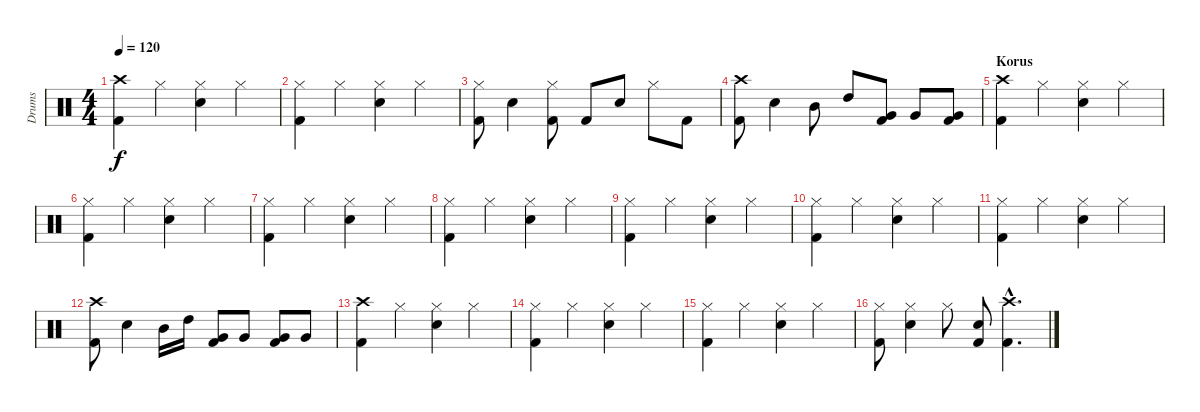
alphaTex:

\track ("Drums" "Drums") {instrument percussion}
\staff {score}
\articulation defaults
\ts (4 4)
\tempo 120
\clef neutral
\ks c
("Crash high (hit)" "Kick (hit) 2").4{dy f} "Hi-Hat (closed)".4 ("Hi-Hat (closed)" "Electric Snare (hit)").4 "Hi-Hat (closed)".4 |
("Hi-Hat (closed)" "Kick (hit) 2").4 "Hi-Hat (closed)".4 ("Hi-Hat (closed)" "Electric Snare (hit)").4 "Hi-Hat (closed)".4 |
("Hi-Hat (closed)" "Kick (hit) 2").8 "Electric Snare (hit)".4 ("Hi-Hat (closed)" "Kick (hit) 2").8 "Kick (hit) 2".8 "Electric Snare (hit)".8 "Hi-Hat (closed)".8 "Kick (hit) 2".8 |
("Crash high (hit)" "Kick (hit) 2").8 "Electric Snare (hit)".4 "Mid Tom (hit)".8 "High Tom (hit)".8 ("Very Low Tom (hit)" "Kick (hit) 2").8 "Very Low Tom (hit)".8 ("Very Low Tom (hit)" "Kick (hit) 2").8 |
\section ("" "Korus")
("Crash high (hit)" "Kick (hit) 2").4 "Hi-Hat (closed)".4 ("Hi-Hat (closed)" "Electric Snare (hit)").4 "Hi-Hat (closed)".4 |
("Hi-Hat (closed)" "Kick (hit) 2").4 "Hi-Hat (closed)".4 ("Hi-Hat (closed)" "Electric Snare (hit)").4 "Hi-Hat (closed)".4 |
("Hi-Hat (closed)" "Kick (hit) 2").4 "Hi-Hat (closed)".4 ("Hi-Hat (closed)" "Electric Snare (hit)").4 "Hi-Hat (closed)".4 |
("Hi-Hat (closed)" "Kick (hit) 2").4 "Hi-Hat (closed)".4 ("Hi-Hat (closed)" "Electric Snare (hit)").4 "Hi-Hat (closed)".4 |
("Hi-Hat (closed)" "Kick (hit) 2").4 "Hi-Hat (closed)".4 ("Hi-Hat (closed)" "Electric Snare (hit)").4 "Hi-Hat (closed)".4 |
("Hi-Hat (closed)" "Kick (hit) 2").4 "Hi-Hat (closed)".4 ("Hi-Hat (closed)" "Electric Snare (hit)").4 "Hi-Hat (closed)".4 |
("Hi-Hat (closed)" "Kick (hit) 2").4 "Hi-Hat (closed)".4 ("Hi-Hat (closed)" "Electric Snare (hit)").4 "Hi-Hat (closed)".4 |
("Crash high (hit)" "Kick (hit) 2").8 "Electric Snare (hit)".4 "Mid Tom (hit)".16 "High Tom (hit)".16 ("Very Low Tom (hit)" "Kick (hit) 2").8 "Very Low Tom (hit)".8 ("Very Low Tom (hit)" "Kick (hit) 2").8 "Very Low Tom (hit)".8 |
("Crash high (hit)" "Kick (hit) 2").4 "Hi-Hat (closed)".4 ("Hi-Hat (closed)" "Electric Snare (hit)").4 "Hi-Hat (closed)".4 |
("Hi-Hat (closed)" "Kick (hit) 2").4 "Hi-Hat (closed)".4 ("Hi-Hat (closed)" "Electric Snare (hit)").4 "Hi-Hat (closed)".4 |
("Hi-Hat (closed)" "Kick (hit) 2").4 "Hi-Hat (closed)".4 ("Hi-Hat (closed)" "Electric Snare (hit)").4 "Hi-Hat (closed)".4 |
("Hi-Hat (closed)" "Kick (hit) 2").8 ("Hi-Hat (closed)" "Electric Snare (hit)").4 "Hi-Hat (closed)".8 ("Electric Snare (hit)" "Kick (hit) 2").8 ("Crash high (hit)"{hac} "Kick (hit) 2"{hac}).4{d}
